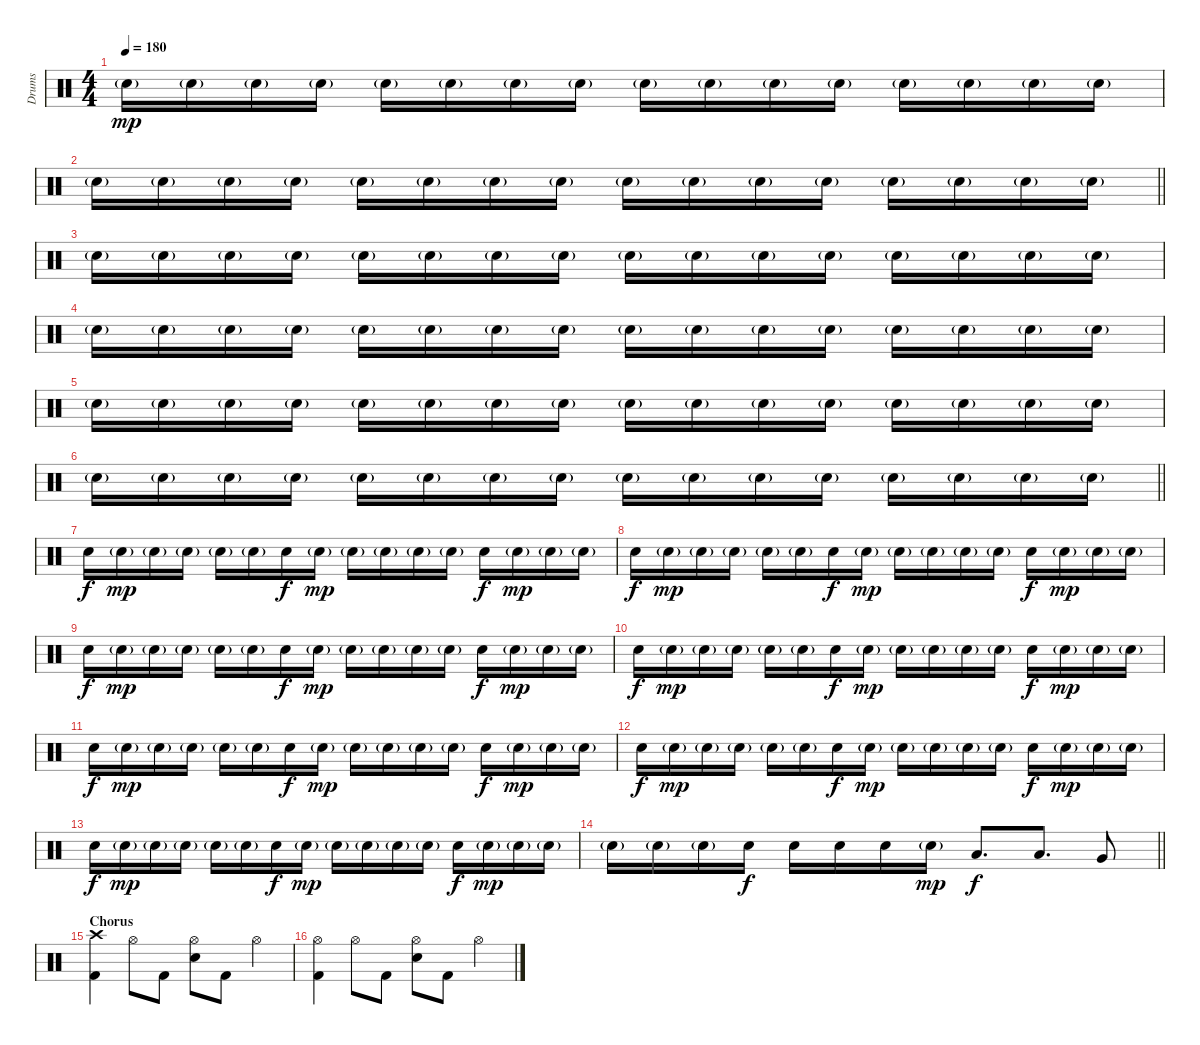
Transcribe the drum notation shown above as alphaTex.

\track ("Drums" "Drums") {instrument percussion}
\staff {score}
\articulation defaults
\ts (4 4)
\tempo 180
\clef neutral
\ks c "Electric Snare (hit)"{g}.16{dy mp} "Electric Snare (hit)"{g}.16 "Electric Snare (hit)"{g}.16 "Electric Snare (hit)"{g}.16 "Electric Snare (hit)"{g}.16 "Electric Snare (hit)"{g}.16 "Electric Snare (hit)"{g}.16 "Electric Snare (hit)"{g}.16 "Electric Snare (hit)"{g}.16 "Electric Snare (hit)"{g}.16 "Electric Snare (hit)"{g}.16 "Electric Snare (hit)"{g}.16 "Electric Snare (hit)"{g}.16 "Electric Snare (hit)"{g}.16 "Electric Snare (hit)"{g}.16 "Electric Snare (hit)"{g}.16
|
\barLineRight lightlight "Electric Snare (hit)"{g}.16 "Electric Snare (hit)"{g}.16 "Electric Snare (hit)"{g}.16 "Electric Snare (hit)"{g}.16 "Electric Snare (hit)"{g}.16 "Electric Snare (hit)"{g}.16 "Electric Snare (hit)"{g}.16 "Electric Snare (hit)"{g}.16 "Electric Snare (hit)"{g}.16 "Electric Snare (hit)"{g}.16 "Electric Snare (hit)"{g}.16 "Electric Snare (hit)"{g}.16 "Electric Snare (hit)"{g}.16 "Electric Snare (hit)"{g}.16 "Electric Snare (hit)"{g}.16 "Electric Snare (hit)"{g}.16
|
"Electric Snare (hit)"{g}.16 "Electric Snare (hit)"{g}.16 "Electric Snare (hit)"{g}.16 "Electric Snare (hit)"{g}.16 "Electric Snare (hit)"{g}.16 "Electric Snare (hit)"{g}.16 "Electric Snare (hit)"{g}.16 "Electric Snare (hit)"{g}.16 "Electric Snare (hit)"{g}.16 "Electric Snare (hit)"{g}.16 "Electric Snare (hit)"{g}.16 "Electric Snare (hit)"{g}.16 "Electric Snare (hit)"{g}.16 "Electric Snare (hit)"{g}.16 "Electric Snare (hit)"{g}.16 "Electric Snare (hit)"{g}.16 |
"Electric Snare (hit)"{g}.16 "Electric Snare (hit)"{g}.16 "Electric Snare (hit)"{g}.16 "Electric Snare (hit)"{g}.16 "Electric Snare (hit)"{g}.16 "Electric Snare (hit)"{g}.16 "Electric Snare (hit)"{g}.16 "Electric Snare (hit)"{g}.16 "Electric Snare (hit)"{g}.16 "Electric Snare (hit)"{g}.16 "Electric Snare (hit)"{g}.16 "Electric Snare (hit)"{g}.16 "Electric Snare (hit)"{g}.16 "Electric Snare (hit)"{g}.16 "Electric Snare (hit)"{g}.16 "Electric Snare (hit)"{g}.16 |
"Electric Snare (hit)"{g}.16 "Electric Snare (hit)"{g}.16 "Electric Snare (hit)"{g}.16 "Electric Snare (hit)"{g}.16 "Electric Snare (hit)"{g}.16 "Electric Snare (hit)"{g}.16 "Electric Snare (hit)"{g}.16 "Electric Snare (hit)"{g}.16 "Electric Snare (hit)"{g}.16 "Electric Snare (hit)"{g}.16 "Electric Snare (hit)"{g}.16 "Electric Snare (hit)"{g}.16 "Electric Snare (hit)"{g}.16 "Electric Snare (hit)"{g}.16 "Electric Snare (hit)"{g}.16 "Electric Snare (hit)"{g}.16 |
\barLineRight lightlight "Electric Snare (hit)"{g}.16 "Electric Snare (hit)"{g}.16 "Electric Snare (hit)"{g}.16 "Electric Snare (hit)"{g}.16 "Electric Snare (hit)"{g}.16 "Electric Snare (hit)"{g}.16 "Electric Snare (hit)"{g}.16 "Electric Snare (hit)"{g}.16 "Electric Snare (hit)"{g}.16 "Electric Snare (hit)"{g}.16 "Electric Snare (hit)"{g}.16 "Electric Snare (hit)"{g}.16 "Electric Snare (hit)"{g}.16 "Electric Snare (hit)"{g}.16 "Electric Snare (hit)"{g}.16 "Electric Snare (hit)"{g}.16
|
"Electric Snare (hit)".16{dy f} "Electric Snare (hit)"{g}.16{dy mp} "Electric Snare (hit)"{g}.16 "Electric Snare (hit)"{g}.16 "Electric Snare (hit)"{g}.16 "Electric Snare (hit)"{g}.16 "Electric Snare (hit)".16{dy f} "Electric Snare (hit)"{g}.16{dy mp} "Electric Snare (hit)"{g}.16 "Electric Snare (hit)"{g}.16 "Electric Snare (hit)"{g}.16 "Electric Snare (hit)"{g}.16 "Electric Snare (hit)".16{dy f} "Electric Snare (hit)"{g}.16{dy mp} "Electric Snare (hit)"{g}.16 "Electric Snare (hit)"{g}.16 |
"Electric Snare (hit)".16{dy f} "Electric Snare (hit)"{g}.16{dy mp} "Electric Snare (hit)"{g}.16 "Electric Snare (hit)"{g}.16 "Electric Snare (hit)"{g}.16 "Electric Snare (hit)"{g}.16 "Electric Snare (hit)".16{dy f} "Electric Snare (hit)"{g}.16{dy mp} "Electric Snare (hit)"{g}.16 "Electric Snare (hit)"{g}.16 "Electric Snare (hit)"{g}.16 "Electric Snare (hit)"{g}.16 "Electric Snare (hit)".16{dy f} "Electric Snare (hit)"{g}.16{dy mp} "Electric Snare (hit)"{g}.16 "Electric Snare (hit)"{g}.16 |
"Electric Snare (hit)".16{dy f} "Electric Snare (hit)"{g}.16{dy mp} "Electric Snare (hit)"{g}.16 "Electric Snare (hit)"{g}.16 "Electric Snare (hit)"{g}.16 "Electric Snare (hit)"{g}.16 "Electric Snare (hit)".16{dy f} "Electric Snare (hit)"{g}.16{dy mp} "Electric Snare (hit)"{g}.16 "Electric Snare (hit)"{g}.16 "Electric Snare (hit)"{g}.16 "Electric Snare (hit)"{g}.16 "Electric Snare (hit)".16{dy f} "Electric Snare (hit)"{g}.16{dy mp} "Electric Snare (hit)"{g}.16 "Electric Snare (hit)"{g}.16 |
"Electric Snare (hit)".16{dy f} "Electric Snare (hit)"{g}.16{dy mp} "Electric Snare (hit)"{g}.16 "Electric Snare (hit)"{g}.16 "Electric Snare (hit)"{g}.16 "Electric Snare (hit)"{g}.16 "Electric Snare (hit)".16{dy f} "Electric Snare (hit)"{g}.16{dy mp} "Electric Snare (hit)"{g}.16 "Electric Snare (hit)"{g}.16 "Electric Snare (hit)"{g}.16 "Electric Snare (hit)"{g}.16 "Electric Snare (hit)".16{dy f} "Electric Snare (hit)"{g}.16{dy mp} "Electric Snare (hit)"{g}.16 "Electric Snare (hit)"{g}.16 |
"Electric Snare (hit)".16{dy f} "Electric Snare (hit)"{g}.16{dy mp} "Electric Snare (hit)"{g}.16 "Electric Snare (hit)"{g}.16 "Electric Snare (hit)"{g}.16 "Electric Snare (hit)"{g}.16 "Electric Snare (hit)".16{dy f} "Electric Snare (hit)"{g}.16{dy mp} "Electric Snare (hit)"{g}.16 "Electric Snare (hit)"{g}.16 "Electric Snare (hit)"{g}.16 "Electric Snare (hit)"{g}.16 "Electric Snare (hit)".16{dy f} "Electric Snare (hit)"{g}.16{dy mp} "Electric Snare (hit)"{g}.16 "Electric Snare (hit)"{g}.16 |
"Electric Snare (hit)".16{dy f} "Electric Snare (hit)"{g}.16{dy mp} "Electric Snare (hit)"{g}.16 "Electric Snare (hit)"{g}.16 "Electric Snare (hit)"{g}.16 "Electric Snare (hit)"{g}.16 "Electric Snare (hit)".16{dy f} "Electric Snare (hit)"{g}.16{dy mp} "Electric Snare (hit)"{g}.16 "Electric Snare (hit)"{g}.16 "Electric Snare (hit)"{g}.16 "Electric Snare (hit)"{g}.16 "Electric Snare (hit)".16{dy f} "Electric Snare (hit)"{g}.16{dy mp} "Electric Snare (hit)"{g}.16 "Electric Snare (hit)"{g}.16 |
"Electric Snare (hit)".16{dy f} "Electric Snare (hit)"{g}.16{dy mp} "Electric Snare (hit)"{g}.16 "Electric Snare (hit)"{g}.16 "Electric Snare (hit)"{g}.16 "Electric Snare (hit)"{g}.16 "Electric Snare (hit)".16{dy f} "Electric Snare (hit)"{g}.16{dy mp} "Electric Snare (hit)"{g}.16 "Electric Snare (hit)"{g}.16 "Electric Snare (hit)"{g}.16 "Electric Snare (hit)"{g}.16 "Electric Snare (hit)".16{dy f} "Electric Snare (hit)"{g}.16{dy mp} "Electric Snare (hit)"{g}.16 "Electric Snare (hit)"{g}.16 |
\barLineRight lightlight "Electric Snare (hit)"{g}.16 "Electric Snare (hit)"{g}.16 "Electric Snare (hit)"{g}.16 "Electric Snare (hit)".16{dy f} "Electric Snare (hit)".16 "Electric Snare (hit)".16 "Electric Snare (hit)".16 "Electric Snare (hit)"{g}.16{dy mp} "Low Tom (hit)".8{d dy f} "Low Tom (hit)".8{d} "Very Low Tom (hit)".8
|
\section ("" "Chorus")
("Crash high (hit)" "Kick (hit) 2").4 "Hi-Hat (open)".8 "Kick (hit) 2".8 ("Electric Snare (hit)" "Hi-Hat (open)").8 "Kick (hit) 2".8 "Hi-Hat (open)".4 |
("Hi-Hat (open)" "Kick (hit) 2").4 "Hi-Hat (open)".8 "Kick (hit) 2".8 ("Electric Snare (hit)" "Hi-Hat (open)").8 "Kick (hit) 2".8 "Hi-Hat (open)".4
